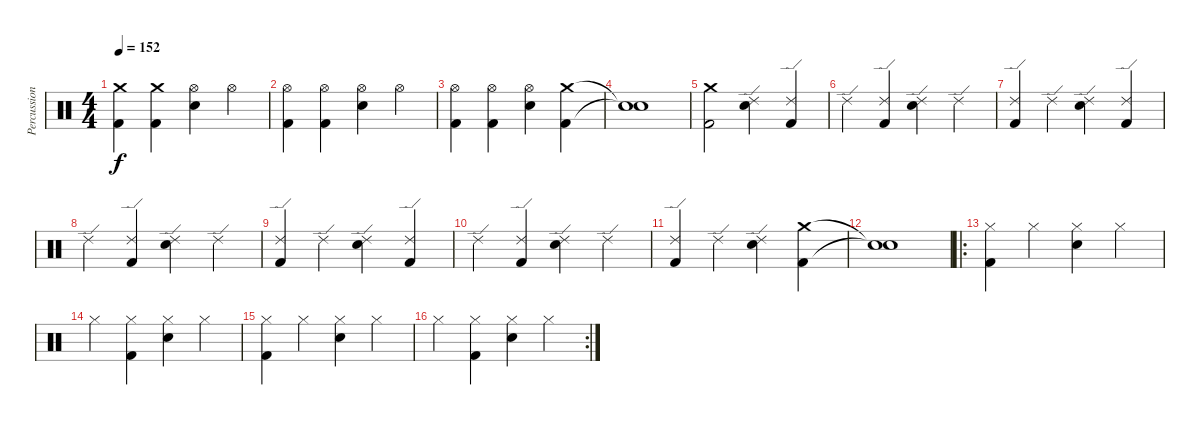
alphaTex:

\track ("Percussion" "Percussion") {instrument percussion}
\staff {score}
\articulation defaults
\ts (4 4)
\tempo 152
\clef neutral
\ks c
("Crash medium (hit)" "Kick (hit) 2").4{dy f} ("Crash medium (hit)" "Kick (hit) 2").4 ("Hi-Hat (open)" "Electric Snare (hit)").4 "Hi-Hat (open)".4 |
("Hi-Hat (open)" "Kick (hit) 2").4 ("Hi-Hat (open)" "Kick (hit) 2").4 ("Hi-Hat (open)" "Electric Snare (hit)").4 "Hi-Hat (open)".4 |
("Hi-Hat (open)" "Kick (hit) 2").4 ("Hi-Hat (open)" "Kick (hit) 2").4 ("Hi-Hat (open)" "Electric Snare (hit)").4 ("Crash medium (hit)" "Kick (hit) 2").4 |
("Snare (hit)"{t} "Snare (hit)"{t}).1 |
("Crash medium (hit)" "Kick (hit) 2").2 ("Ride (edge) 2" "Electric Snare (hit)").4 ("Ride (edge) 2" "Kick (hit) 2").4 |
"Ride (edge) 2".4 ("Ride (edge) 2" "Kick (hit) 2").4 ("Ride (edge) 2" "Electric Snare (hit)").4 "Ride (edge) 2".4 |
("Ride (edge) 2" "Kick (hit) 2").4 "Ride (edge) 2".4 ("Ride (edge) 2" "Electric Snare (hit)").4 ("Ride (edge) 2" "Kick (hit) 2").4 |
"Ride (edge) 2".4 ("Ride (edge) 2" "Kick (hit) 2").4 ("Ride (edge) 2" "Electric Snare (hit)").4 "Ride (edge) 2".4 |
("Ride (edge) 2" "Kick (hit) 2").4 "Ride (edge) 2".4 ("Ride (edge) 2" "Electric Snare (hit)").4 ("Ride (edge) 2" "Kick (hit) 2").4 |
"Ride (edge) 2".4 ("Ride (edge) 2" "Kick (hit) 2").4 ("Ride (edge) 2" "Electric Snare (hit)").4 "Ride (edge) 2".4 |
("Ride (edge) 2" "Kick (hit) 2").4 "Ride (edge) 2".4 ("Ride (edge) 2" "Electric Snare (hit)").4 ("Crash medium (hit)" "Kick (hit) 2").4 |
("Snare (hit)"{t} "Snare (hit)"{t}).1 |
\ro
("Hi-Hat (closed)" "Kick (hit) 2").4 "Hi-Hat (closed)".4 ("Hi-Hat (closed)" "Electric Snare (hit)").4 "Hi-Hat (closed)".4 |
"Hi-Hat (closed)".4 ("Hi-Hat (closed)" "Kick (hit) 2").4 ("Hi-Hat (closed)" "Electric Snare (hit)").4 "Hi-Hat (closed)".4 |
("Hi-Hat (closed)" "Kick (hit) 2").4 "Hi-Hat (closed)".4 ("Hi-Hat (closed)" "Electric Snare (hit)").4 "Hi-Hat (closed)".4 |
\rc 2 "Hi-Hat (closed)".4
("Hi-Hat (closed)" "Kick (hit) 2").4 ("Hi-Hat (closed)" "Electric Snare (hit)").4 "Hi-Hat (closed)".4
